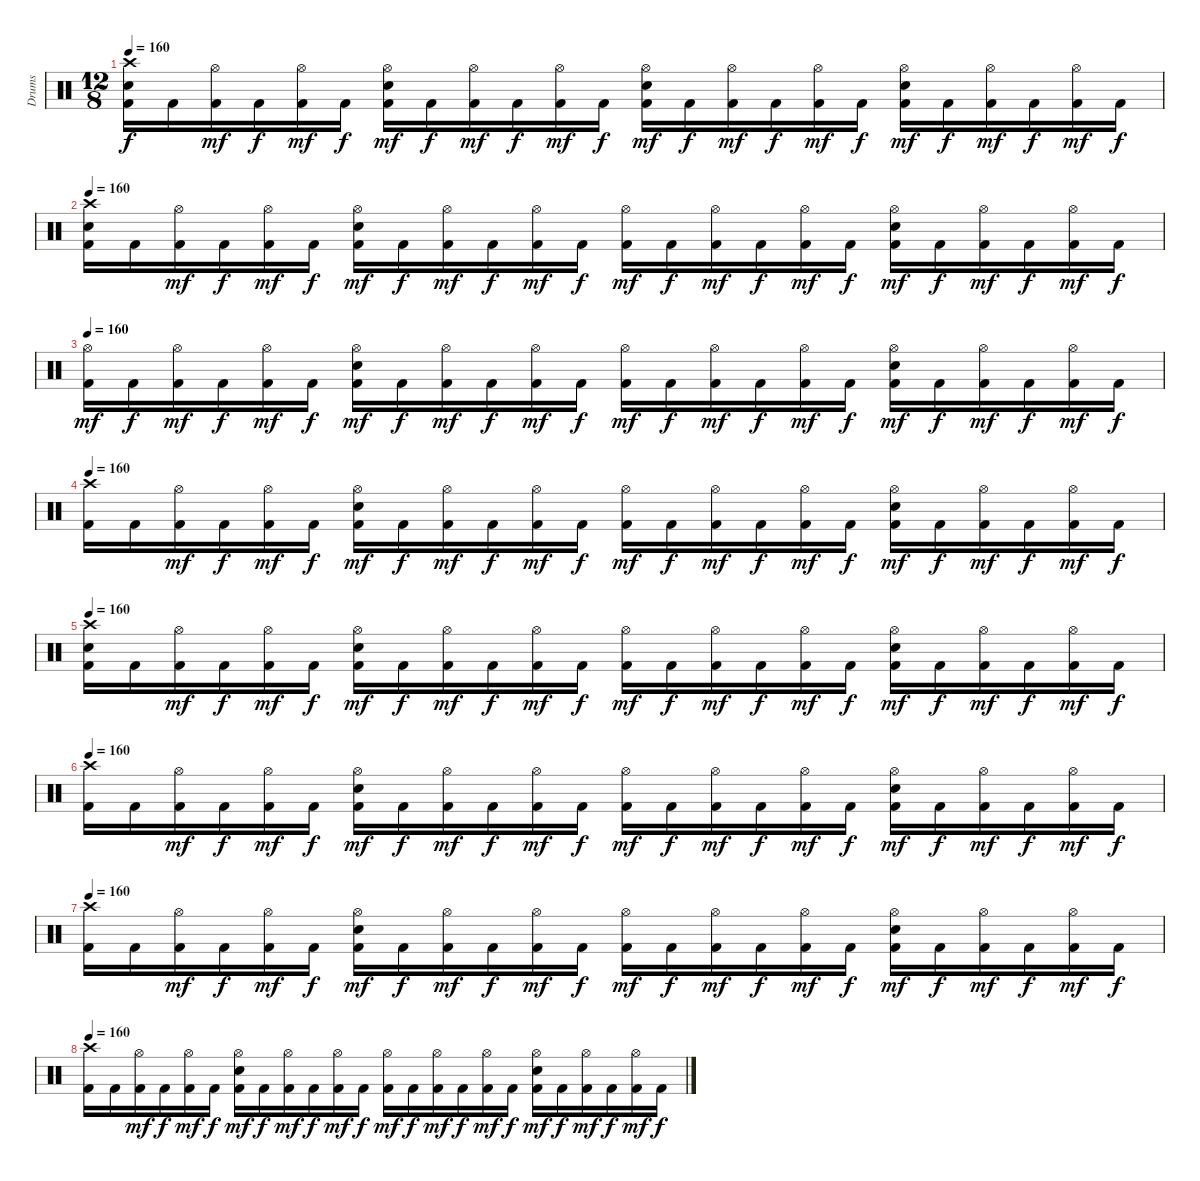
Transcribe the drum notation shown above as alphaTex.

\track ("Drums" "Drums") {instrument percussion}
\staff {score}
\articulation defaults
\ts (12 8)
\tempo 160
\clef neutral
\ks c
("Crash high (hit)" "Electric Snare (hit)" "Kick (hit) 2").16{dy f} "Kick (hit) 2".16 ("Hi-Hat (open)" "Kick (hit) 2").16{dy mf} "Kick (hit) 2".16{dy f} ("Hi-Hat (open)" "Kick (hit) 2").16{dy mf} "Kick (hit) 2".16{dy f} ("Hi-Hat (open)" "Electric Snare (hit)" "Kick (hit) 2").16{dy mf} "Kick (hit) 2".16{dy f} ("Hi-Hat (open)" "Kick (hit) 2").16{dy mf} "Kick (hit) 2".16{dy f} ("Hi-Hat (open)" "Kick (hit) 2").16{dy mf} "Kick (hit) 2".16{dy f} ("Hi-Hat (open)" "Electric Snare (hit)" "Kick (hit) 2").16{dy mf} "Kick (hit) 2".16{dy f} ("Hi-Hat (open)" "Kick (hit) 2").16{dy mf} "Kick (hit) 2".16{dy f} ("Hi-Hat (open)" "Kick (hit) 2").16{dy mf} "Kick (hit) 2".16{dy f} ("Hi-Hat (open)" "Electric Snare (hit)" "Kick (hit) 2").16{dy mf} "Kick (hit) 2".16{dy f} ("Hi-Hat (open)" "Kick (hit) 2").16{dy mf} "Kick (hit) 2".16{dy f} ("Hi-Hat (open)" "Kick (hit) 2").16{dy mf} "Kick (hit) 2".16{dy f} |
\tempo 160
("Crash high (hit)" "Electric Snare (hit)" "Kick (hit) 2").16 "Kick (hit) 2".16 ("Hi-Hat (open)" "Kick (hit) 2").16{dy mf} "Kick (hit) 2".16{dy f} ("Hi-Hat (open)" "Kick (hit) 2").16{dy mf} "Kick (hit) 2".16{dy f} ("Hi-Hat (open)" "Electric Snare (hit)" "Kick (hit) 2").16{dy mf} "Kick (hit) 2".16{dy f} ("Hi-Hat (open)" "Kick (hit) 2").16{dy mf} "Kick (hit) 2".16{dy f} ("Hi-Hat (open)" "Kick (hit) 2").16{dy mf} "Kick (hit) 2".16{dy f} ("Hi-Hat (open)" "Kick (hit) 2").16{dy mf} "Kick (hit) 2".16{dy f} ("Hi-Hat (open)" "Kick (hit) 2").16{dy mf} "Kick (hit) 2".16{dy f} ("Hi-Hat (open)" "Kick (hit) 2").16{dy mf} "Kick (hit) 2".16{dy f} ("Hi-Hat (open)" "Electric Snare (hit)" "Kick (hit) 2").16{dy mf} "Kick (hit) 2".16{dy f} ("Hi-Hat (open)" "Kick (hit) 2").16{dy mf} "Kick (hit) 2".16{dy f} ("Hi-Hat (open)" "Kick (hit) 2").16{dy mf} "Kick (hit) 2".16{dy f} |
\tempo 160
("Hi-Hat (open)" "Kick (hit) 2").16{dy mf} "Kick (hit) 2".16{dy f} ("Hi-Hat (open)" "Kick (hit) 2").16{dy mf} "Kick (hit) 2".16{dy f} ("Hi-Hat (open)" "Kick (hit) 2").16{dy mf} "Kick (hit) 2".16{dy f} ("Hi-Hat (open)" "Electric Snare (hit)" "Kick (hit) 2").16{dy mf} "Kick (hit) 2".16{dy f} ("Hi-Hat (open)" "Kick (hit) 2").16{dy mf} "Kick (hit) 2".16{dy f} ("Hi-Hat (open)" "Kick (hit) 2").16{dy mf} "Kick (hit) 2".16{dy f} ("Hi-Hat (open)" "Kick (hit) 2").16{dy mf} "Kick (hit) 2".16{dy f} ("Hi-Hat (open)" "Kick (hit) 2").16{dy mf} "Kick (hit) 2".16{dy f} ("Hi-Hat (open)" "Kick (hit) 2").16{dy mf} "Kick (hit) 2".16{dy f} ("Hi-Hat (open)" "Electric Snare (hit)" "Kick (hit) 2").16{dy mf} "Kick (hit) 2".16{dy f} ("Hi-Hat (open)" "Kick (hit) 2").16{dy mf} "Kick (hit) 2".16{dy f} ("Hi-Hat (open)" "Kick (hit) 2").16{dy mf} "Kick (hit) 2".16{dy f} |
\tempo 160
("Crash high (hit)" "Kick (hit) 2").16 "Kick (hit) 2".16 ("Hi-Hat (open)" "Kick (hit) 2").16{dy mf} "Kick (hit) 2".16{dy f} ("Hi-Hat (open)" "Kick (hit) 2").16{dy mf} "Kick (hit) 2".16{dy f} ("Hi-Hat (open)" "Electric Snare (hit)" "Kick (hit) 2").16{dy mf} "Kick (hit) 2".16{dy f} ("Hi-Hat (open)" "Kick (hit) 2").16{dy mf} "Kick (hit) 2".16{dy f} ("Hi-Hat (open)" "Kick (hit) 2").16{dy mf} "Kick (hit) 2".16{dy f} ("Hi-Hat (open)" "Kick (hit) 2").16{dy mf} "Kick (hit) 2".16{dy f} ("Hi-Hat (open)" "Kick (hit) 2").16{dy mf} "Kick (hit) 2".16{dy f} ("Hi-Hat (open)" "Kick (hit) 2").16{dy mf} "Kick (hit) 2".16{dy f} ("Hi-Hat (open)" "Electric Snare (hit)" "Kick (hit) 2").16{dy mf} "Kick (hit) 2".16{dy f} ("Hi-Hat (open)" "Kick (hit) 2").16{dy mf} "Kick (hit) 2".16{dy f} ("Hi-Hat (open)" "Kick (hit) 2").16{dy mf} "Kick (hit) 2".16{dy f} |
\tempo 160
("Crash high (hit)" "Electric Snare (hit)" "Kick (hit) 2").16 "Kick (hit) 2".16 ("Hi-Hat (open)" "Kick (hit) 2").16{dy mf} "Kick (hit) 2".16{dy f} ("Hi-Hat (open)" "Kick (hit) 2").16{dy mf} "Kick (hit) 2".16{dy f} ("Hi-Hat (open)" "Electric Snare (hit)" "Kick (hit) 2").16{dy mf} "Kick (hit) 2".16{dy f} ("Hi-Hat (open)" "Kick (hit) 2").16{dy mf} "Kick (hit) 2".16{dy f} ("Hi-Hat (open)" "Kick (hit) 2").16{dy mf} "Kick (hit) 2".16{dy f} ("Hi-Hat (open)" "Kick (hit) 2").16{dy mf} "Kick (hit) 2".16{dy f} ("Hi-Hat (open)" "Kick (hit) 2").16{dy mf} "Kick (hit) 2".16{dy f} ("Hi-Hat (open)" "Kick (hit) 2").16{dy mf} "Kick (hit) 2".16{dy f} ("Hi-Hat (open)" "Electric Snare (hit)" "Kick (hit) 2").16{dy mf} "Kick (hit) 2".16{dy f} ("Hi-Hat (open)" "Kick (hit) 2").16{dy mf} "Kick (hit) 2".16{dy f} ("Hi-Hat (open)" "Kick (hit) 2").16{dy mf} "Kick (hit) 2".16{dy f} |
\tempo 160
("Crash high (hit)" "Kick (hit) 2").16 "Kick (hit) 2".16 ("Hi-Hat (open)" "Kick (hit) 2").16{dy mf} "Kick (hit) 2".16{dy f} ("Hi-Hat (open)" "Kick (hit) 2").16{dy mf} "Kick (hit) 2".16{dy f} ("Hi-Hat (open)" "Electric Snare (hit)" "Kick (hit) 2").16{dy mf} "Kick (hit) 2".16{dy f} ("Hi-Hat (open)" "Kick (hit) 2").16{dy mf} "Kick (hit) 2".16{dy f} ("Hi-Hat (open)" "Kick (hit) 2").16{dy mf} "Kick (hit) 2".16{dy f} ("Hi-Hat (open)" "Kick (hit) 2").16{dy mf} "Kick (hit) 2".16{dy f} ("Hi-Hat (open)" "Kick (hit) 2").16{dy mf} "Kick (hit) 2".16{dy f} ("Hi-Hat (open)" "Kick (hit) 2").16{dy mf} "Kick (hit) 2".16{dy f} ("Hi-Hat (open)" "Electric Snare (hit)" "Kick (hit) 2").16{dy mf} "Kick (hit) 2".16{dy f} ("Hi-Hat (open)" "Kick (hit) 2").16{dy mf} "Kick (hit) 2".16{dy f} ("Hi-Hat (open)" "Kick (hit) 2").16{dy mf} "Kick (hit) 2".16{dy f} |
\tempo 160
("Crash high (hit)" "Kick (hit) 2").16 "Kick (hit) 2".16 ("Hi-Hat (open)" "Kick (hit) 2").16{dy mf} "Kick (hit) 2".16{dy f} ("Hi-Hat (open)" "Kick (hit) 2").16{dy mf} "Kick (hit) 2".16{dy f} ("Hi-Hat (open)" "Electric Snare (hit)" "Kick (hit) 2").16{dy mf} "Kick (hit) 2".16{dy f} ("Hi-Hat (open)" "Kick (hit) 2").16{dy mf} "Kick (hit) 2".16{dy f} ("Hi-Hat (open)" "Kick (hit) 2").16{dy mf} "Kick (hit) 2".16{dy f} ("Hi-Hat (open)" "Kick (hit) 2").16{dy mf} "Kick (hit) 2".16{dy f} ("Hi-Hat (open)" "Kick (hit) 2").16{dy mf} "Kick (hit) 2".16{dy f} ("Hi-Hat (open)" "Kick (hit) 2").16{dy mf} "Kick (hit) 2".16{dy f} ("Hi-Hat (open)" "Electric Snare (hit)" "Kick (hit) 2").16{dy mf} "Kick (hit) 2".16{dy f} ("Hi-Hat (open)" "Kick (hit) 2").16{dy mf} "Kick (hit) 2".16{dy f} ("Hi-Hat (open)" "Kick (hit) 2").16{dy mf} "Kick (hit) 2".16{dy f} |
\tempo 160
("Crash high (hit)" "Kick (hit) 2").16 "Kick (hit) 2".16 ("Hi-Hat (open)" "Kick (hit) 2").16{dy mf} "Kick (hit) 2".16{dy f} ("Hi-Hat (open)" "Kick (hit) 2").16{dy mf} "Kick (hit) 2".16{dy f} ("Hi-Hat (open)" "Electric Snare (hit)" "Kick (hit) 2").16{dy mf} "Kick (hit) 2".16{dy f} ("Hi-Hat (open)" "Kick (hit) 2").16{dy mf} "Kick (hit) 2".16{dy f} ("Hi-Hat (open)" "Kick (hit) 2").16{dy mf} "Kick (hit) 2".16{dy f} ("Hi-Hat (open)" "Kick (hit) 2").16{dy mf} "Kick (hit) 2".16{dy f} ("Hi-Hat (open)" "Kick (hit) 2").16{dy mf} "Kick (hit) 2".16{dy f} ("Hi-Hat (open)" "Kick (hit) 2").16{dy mf} "Kick (hit) 2".16{dy f} ("Hi-Hat (open)" "Electric Snare (hit)" "Kick (hit) 2").16{dy mf} "Kick (hit) 2".16{dy f} ("Hi-Hat (open)" "Kick (hit) 2").16{dy mf} "Kick (hit) 2".16{dy f} ("Hi-Hat (open)" "Kick (hit) 2").16{dy mf} "Kick (hit) 2".16{dy f}
